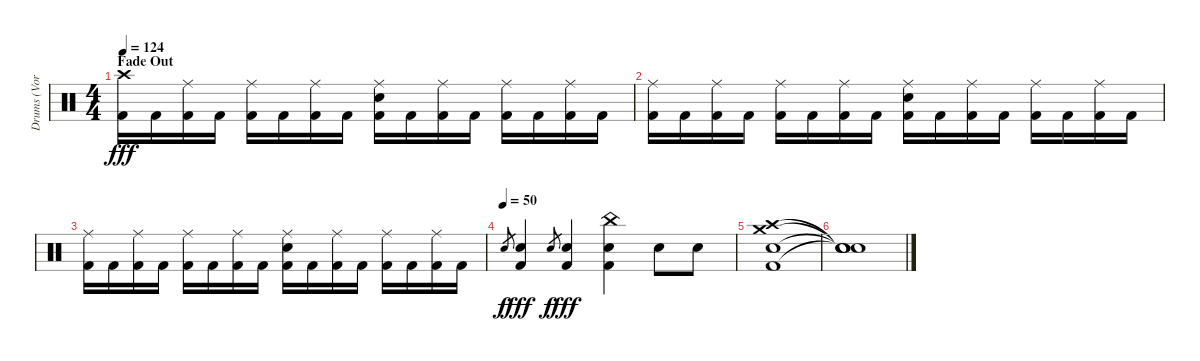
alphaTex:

\track ("Drums (Vortex)" "Drums (Vor") {instrument percussion}
\staff {score}
\articulation defaults
\ts (4 4)
\section ("" "Fade Out")
\tempo 124
\clef neutral
\ks c
("Crash high (hit)" "Kick (hit) 2").16{dy fff} "Kick (hit) 2".16 ("Ride (middle)" "Kick (hit) 2").16 "Kick (hit) 2".16 ("Ride (middle)" "Kick (hit) 2").16 "Kick (hit) 2".16 ("Ride (middle)" "Kick (hit) 2").16 "Kick (hit) 2".16 ("Ride (middle)" "Snare (hit) 2" "Kick (hit) 2").16 "Kick (hit) 2".16 ("Ride (middle)" "Kick (hit) 2").16 "Kick (hit) 2".16 ("Ride (middle)" "Kick (hit) 2").16 "Kick (hit) 2".16 ("Ride (middle)" "Kick (hit) 2").16 "Kick (hit) 2".16 |
("Ride (middle)" "Kick (hit) 2").16 "Kick (hit) 2".16 ("Ride (middle)" "Kick (hit) 2").16 "Kick (hit) 2".16 ("Ride (middle)" "Kick (hit) 2").16 "Kick (hit) 2".16 ("Ride (middle)" "Kick (hit) 2").16 "Kick (hit) 2".16 ("Ride (middle)" "Snare (hit) 2" "Kick (hit) 2").16 "Kick (hit) 2".16 ("Ride (middle)" "Kick (hit) 2").16 "Kick (hit) 2".16 ("Ride (middle)" "Kick (hit) 2").16 "Kick (hit) 2".16 ("Ride (middle)" "Kick (hit) 2").16 "Kick (hit) 2".16 |
("Ride (middle)" "Kick (hit) 2").16 "Kick (hit) 2".16 ("Ride (middle)" "Kick (hit) 2").16 "Kick (hit) 2".16 ("Ride (middle)" "Kick (hit) 2").16 "Kick (hit) 2".16 ("Ride (middle)" "Kick (hit) 2").16 "Kick (hit) 2".16 ("Ride (middle)" "Snare (hit) 2" "Kick (hit) 2").16 "Kick (hit) 2".16 ("Ride (middle)" "Kick (hit) 2").16 "Kick (hit) 2".16 ("Ride (middle)" "Kick (hit) 2").16 "Kick (hit) 2".16 ("Ride (middle)" "Kick (hit) 2").16 "Kick (hit) 2".16 |
\tempo (50)
"Snare (hit) 2".8{gr dy f} ("Snare (hit) 2" "Kick (hit) 2").4{dy fff} "Snare (hit) 2".8{gr dy f} ("Snare (hit) 2" "Kick (hit) 2").4{dy fff} ("China (hit)" "Snare (hit) 2" "Kick (hit) 2").4 "Snare (hit) 2".8 "Snare (hit) 2".8 |
("Crash high (hit)" "Crash medium (hit)" "Snare (hit) 2" "Kick (hit) 2").1 |
("Snare (hit)"{t} "Snare (hit)"{t} "Snare (hit)"{t} "Snare (hit)"{t}).1
